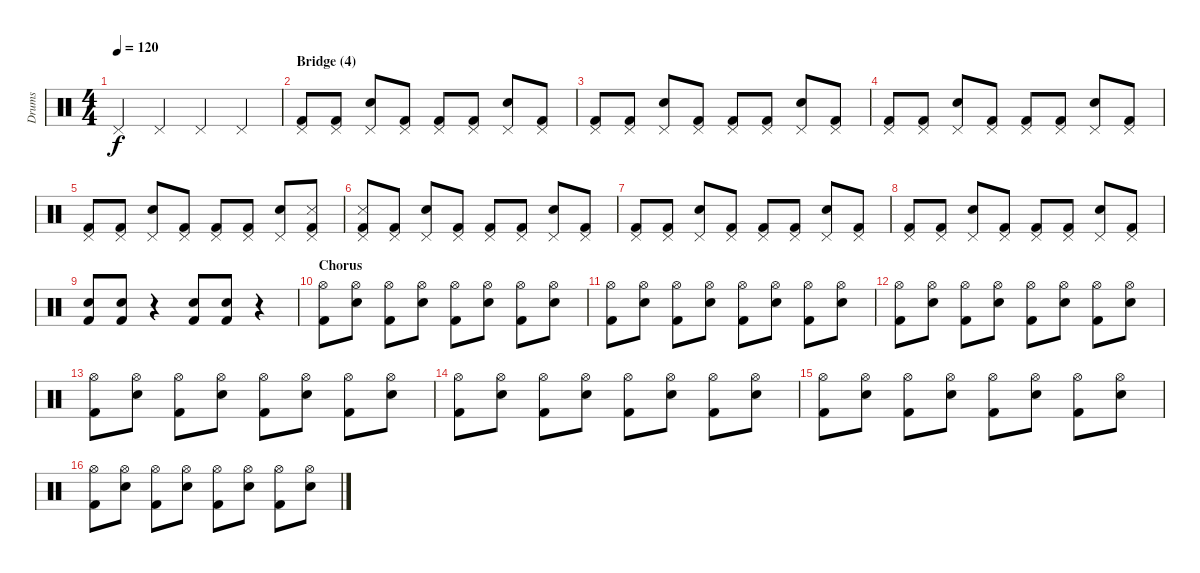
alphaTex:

\track ("Drums" "Drums") {instrument percussion}
\staff {score}
\articulation defaults
\ts (4 4)
\tempo 120
\clef neutral
\ks c "Pedal Hi-Hat (hit)".4{dy f} "Pedal Hi-Hat (hit)".4 "Pedal Hi-Hat (hit)".4 "Pedal Hi-Hat (hit)".4
|
\section ("" "Bridge (4)")
("Pedal Hi-Hat (hit)" "Kick (hit) 2").8 ("Pedal Hi-Hat (hit)" "Kick (hit) 2").8 ("Pedal Hi-Hat (hit)" "Snare (hit) 2").8 ("Pedal Hi-Hat (hit)" "Kick (hit) 2").8 ("Pedal Hi-Hat (hit)" "Kick (hit) 2").8 ("Pedal Hi-Hat (hit)" "Kick (hit) 2").8 ("Pedal Hi-Hat (hit)" "Snare (hit) 2").8 ("Pedal Hi-Hat (hit)" "Kick (hit) 2").8 |
("Pedal Hi-Hat (hit)" "Kick (hit) 2").8 ("Pedal Hi-Hat (hit)" "Kick (hit) 2").8 ("Pedal Hi-Hat (hit)" "Snare (hit) 2").8 ("Pedal Hi-Hat (hit)" "Kick (hit) 2").8 ("Pedal Hi-Hat (hit)" "Kick (hit) 2").8 ("Pedal Hi-Hat (hit)" "Kick (hit) 2").8 ("Pedal Hi-Hat (hit)" "Snare (hit) 2").8 ("Pedal Hi-Hat (hit)" "Kick (hit) 2").8 |
("Pedal Hi-Hat (hit)" "Kick (hit) 2").8 ("Pedal Hi-Hat (hit)" "Kick (hit) 2").8 ("Pedal Hi-Hat (hit)" "Snare (hit) 2").8 ("Pedal Hi-Hat (hit)" "Kick (hit) 2").8 ("Pedal Hi-Hat (hit)" "Kick (hit) 2").8 ("Pedal Hi-Hat (hit)" "Kick (hit) 2").8 ("Pedal Hi-Hat (hit)" "Snare (hit) 2").8 ("Pedal Hi-Hat (hit)" "Kick (hit) 2").8 |
("Pedal Hi-Hat (hit)" "Kick (hit) 2").8 ("Pedal Hi-Hat (hit)" "Kick (hit) 2").8 ("Pedal Hi-Hat (hit)" "Snare (hit) 2").8 ("Pedal Hi-Hat (hit)" "Kick (hit) 2").8 ("Pedal Hi-Hat (hit)" "Kick (hit) 2").8 ("Pedal Hi-Hat (hit)" "Kick (hit) 2").8 ("Pedal Hi-Hat (hit)" "Snare (hit) 2").8 ("Pedal Hi-Hat (hit)" "Snare (side stick) 3" "Kick (hit) 2").8 |
("Pedal Hi-Hat (hit)" "Snare (side stick) 3" "Kick (hit) 2").8 ("Pedal Hi-Hat (hit)" "Kick (hit) 2").8 ("Pedal Hi-Hat (hit)" "Snare (hit) 2").8 ("Pedal Hi-Hat (hit)" "Kick (hit) 2").8 ("Pedal Hi-Hat (hit)" "Kick (hit) 2").8 ("Pedal Hi-Hat (hit)" "Kick (hit) 2").8 ("Pedal Hi-Hat (hit)" "Snare (hit) 2").8 ("Pedal Hi-Hat (hit)" "Kick (hit) 2").8 |
("Pedal Hi-Hat (hit)" "Kick (hit) 2").8 ("Pedal Hi-Hat (hit)" "Kick (hit) 2").8 ("Pedal Hi-Hat (hit)" "Snare (hit) 2").8 ("Pedal Hi-Hat (hit)" "Kick (hit) 2").8 ("Pedal Hi-Hat (hit)" "Kick (hit) 2").8 ("Pedal Hi-Hat (hit)" "Kick (hit) 2").8 ("Pedal Hi-Hat (hit)" "Snare (hit) 2").8 ("Pedal Hi-Hat (hit)" "Kick (hit) 2").8 |
("Pedal Hi-Hat (hit)" "Kick (hit) 2").8 ("Pedal Hi-Hat (hit)" "Kick (hit) 2").8 ("Pedal Hi-Hat (hit)" "Snare (hit) 2").8 ("Pedal Hi-Hat (hit)" "Kick (hit) 2").8 ("Pedal Hi-Hat (hit)" "Kick (hit) 2").8 ("Pedal Hi-Hat (hit)" "Kick (hit) 2").8 ("Pedal Hi-Hat (hit)" "Snare (hit) 2").8 ("Pedal Hi-Hat (hit)" "Kick (hit) 2").8 |
("Snare (hit) 2" "Kick (hit) 2").8 ("Snare (hit) 2" "Kick (hit) 2").8 r.4 ("Snare (hit) 2" "Kick (hit) 2").8 ("Snare (hit) 2" "Kick (hit) 2").8 r.4 |
\section ("" "Chorus")
("Hi-Hat (open)" "Kick (hit) 2").8 ("Hi-Hat (open)" "Snare (hit) 2").8 ("Hi-Hat (open)" "Kick (hit) 2").8 ("Hi-Hat (open)" "Snare (hit) 2").8 ("Hi-Hat (open)" "Kick (hit) 2").8 ("Hi-Hat (open)" "Snare (hit) 2").8 ("Hi-Hat (open)" "Kick (hit) 2").8 ("Hi-Hat (open)" "Snare (hit) 2").8 |
("Hi-Hat (open)" "Kick (hit) 2").8 ("Hi-Hat (open)" "Snare (hit) 2").8 ("Hi-Hat (open)" "Kick (hit) 2").8 ("Hi-Hat (open)" "Snare (hit) 2").8 ("Hi-Hat (open)" "Kick (hit) 2").8 ("Hi-Hat (open)" "Snare (hit) 2").8 ("Hi-Hat (open)" "Kick (hit) 2").8 ("Hi-Hat (open)" "Snare (hit) 2").8 |
("Hi-Hat (open)" "Kick (hit) 2").8 ("Hi-Hat (open)" "Snare (hit) 2").8 ("Hi-Hat (open)" "Kick (hit) 2").8 ("Hi-Hat (open)" "Snare (hit) 2").8 ("Hi-Hat (open)" "Kick (hit) 2").8 ("Hi-Hat (open)" "Snare (hit) 2").8 ("Hi-Hat (open)" "Kick (hit) 2").8 ("Hi-Hat (open)" "Snare (hit) 2").8 |
("Hi-Hat (open)" "Kick (hit) 2").8 ("Hi-Hat (open)" "Snare (hit) 2").8 ("Hi-Hat (open)" "Kick (hit) 2").8 ("Hi-Hat (open)" "Snare (hit) 2").8 ("Hi-Hat (open)" "Kick (hit) 2").8 ("Hi-Hat (open)" "Snare (hit) 2").8 ("Hi-Hat (open)" "Kick (hit) 2").8 ("Hi-Hat (open)" "Snare (hit) 2").8 |
("Hi-Hat (open)" "Kick (hit) 2").8 ("Hi-Hat (open)" "Snare (hit) 2").8 ("Hi-Hat (open)" "Kick (hit) 2").8 ("Hi-Hat (open)" "Snare (hit) 2").8 ("Hi-Hat (open)" "Kick (hit) 2").8 ("Hi-Hat (open)" "Snare (hit) 2").8 ("Hi-Hat (open)" "Kick (hit) 2").8 ("Hi-Hat (open)" "Snare (hit) 2").8 |
("Hi-Hat (open)" "Kick (hit) 2").8 ("Hi-Hat (open)" "Snare (hit) 2").8 ("Hi-Hat (open)" "Kick (hit) 2").8 ("Hi-Hat (open)" "Snare (hit) 2").8 ("Hi-Hat (open)" "Kick (hit) 2").8 ("Hi-Hat (open)" "Snare (hit) 2").8 ("Hi-Hat (open)" "Kick (hit) 2").8 ("Hi-Hat (open)" "Snare (hit) 2").8 |
("Hi-Hat (open)" "Kick (hit) 2").8 ("Hi-Hat (open)" "Snare (hit) 2").8 ("Hi-Hat (open)" "Kick (hit) 2").8 ("Hi-Hat (open)" "Snare (hit) 2").8 ("Hi-Hat (open)" "Kick (hit) 2").8 ("Hi-Hat (open)" "Snare (hit) 2").8 ("Hi-Hat (open)" "Kick (hit) 2").8 ("Hi-Hat (open)" "Snare (hit) 2").8
